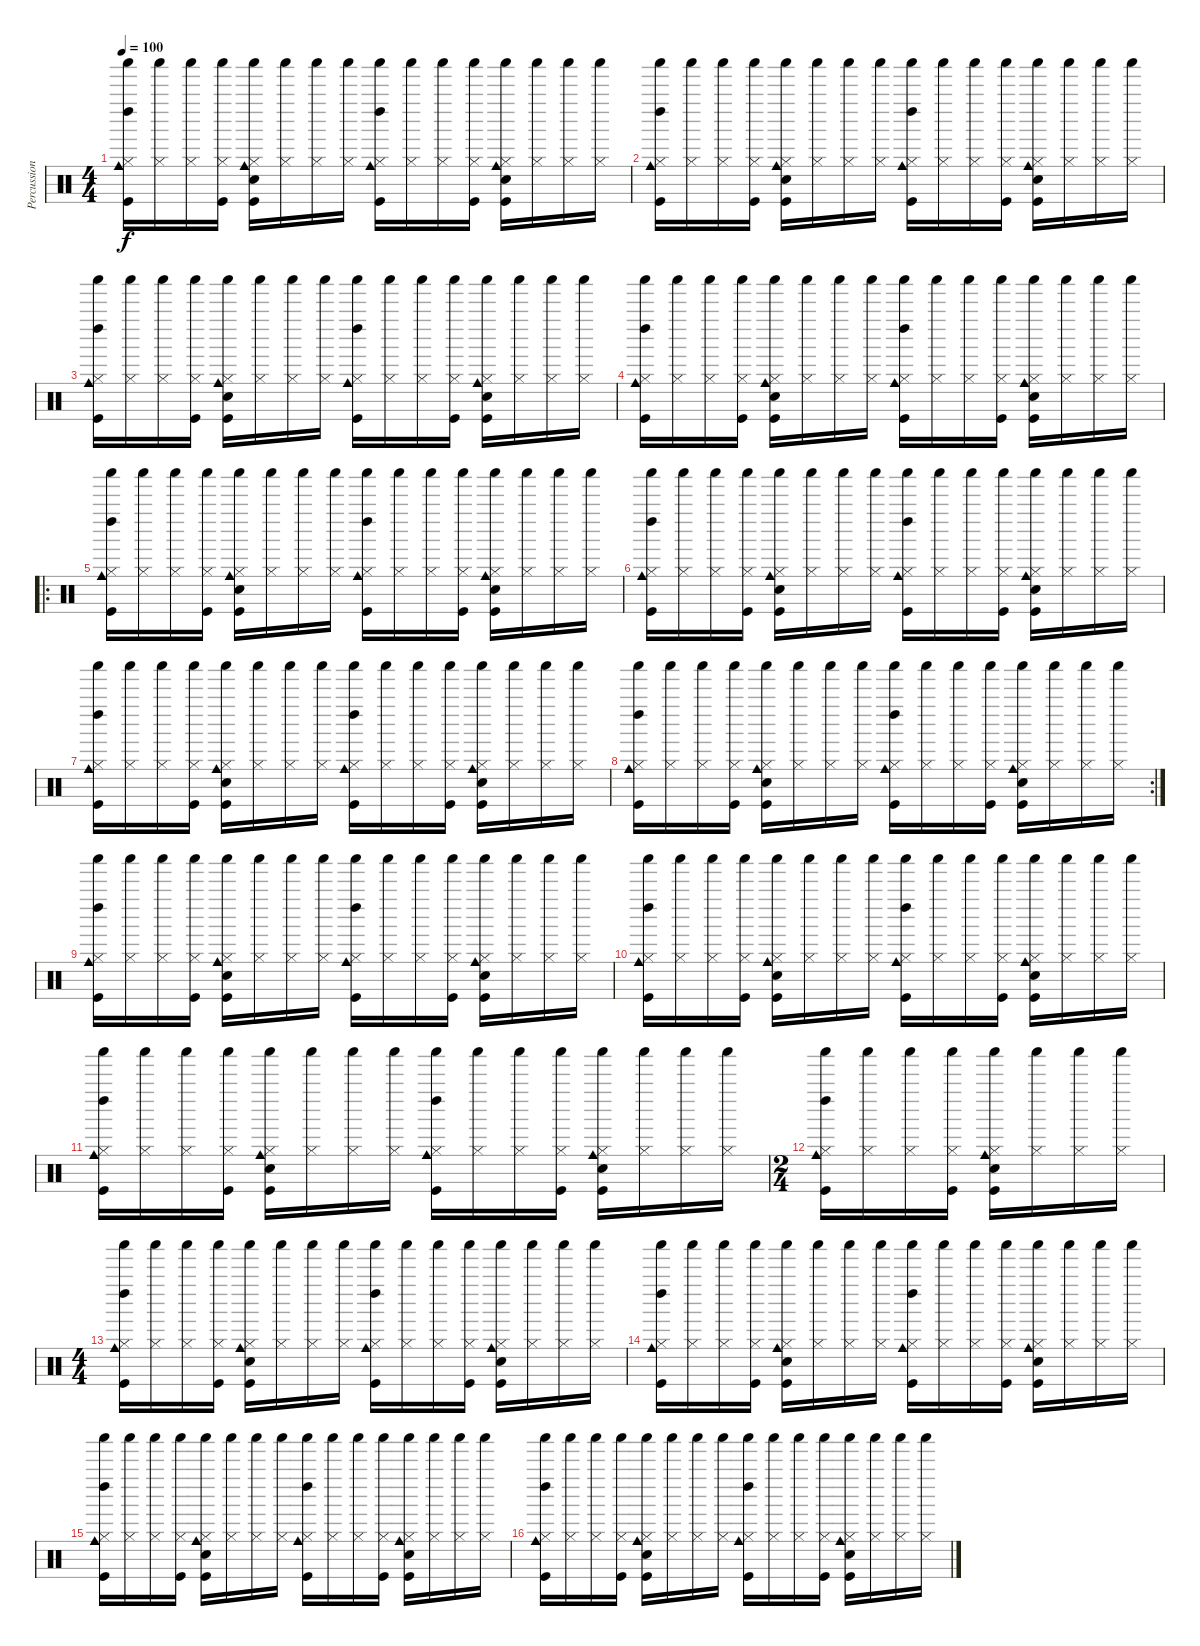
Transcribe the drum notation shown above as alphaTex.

\track ("Percussions" "Percussion") {instrument percussion}
\staff {score}
\articulation defaults
\ts (4 4)
\tempo 100
\clef neutral
\ks c
("Hi-Hat (closed)" "Kick (hit)" "Left Maraca (hit)" "Cowbell medium (hit)" "Shaker (hit)").16{dy f} ("Hi-Hat (closed)" "Shaker (hit)").16 ("Hi-Hat (closed)" "Shaker (hit)").16 ("Hi-Hat (closed)" "Kick (hit)" "Shaker (hit)").16 ("Hi-Hat (closed)" "Electric Snare (hit)" "Kick (hit)" "Cowbell medium (hit)" "Shaker (hit)").16 ("Hi-Hat (closed)" "Shaker (hit)").16 ("Hi-Hat (closed)" "Shaker (hit)").16 ("Hi-Hat (closed)" "Shaker (hit)").16 ("Hi-Hat (closed)" "Kick (hit)" "Left Maraca (hit)" "Cowbell medium (hit)" "Shaker (hit)").16 ("Hi-Hat (closed)" "Shaker (hit)").16 ("Hi-Hat (closed)" "Shaker (hit)").16 ("Hi-Hat (closed)" "Kick (hit)" "Shaker (hit)").16 ("Hi-Hat (closed)" "Electric Snare (hit)" "Kick (hit)" "Cowbell medium (hit)" "Shaker (hit)").16 ("Hi-Hat (closed)" "Shaker (hit)").16 ("Hi-Hat (closed)" "Shaker (hit)").16 ("Hi-Hat (closed)" "Shaker (hit)").16 |
("Hi-Hat (closed)" "Kick (hit)" "Left Maraca (hit)" "Cowbell medium (hit)" "Shaker (hit)").16 ("Hi-Hat (closed)" "Shaker (hit)").16 ("Hi-Hat (closed)" "Shaker (hit)").16 ("Hi-Hat (closed)" "Kick (hit)" "Shaker (hit)").16 ("Hi-Hat (closed)" "Electric Snare (hit)" "Kick (hit)" "Cowbell medium (hit)" "Shaker (hit)").16 ("Hi-Hat (closed)" "Shaker (hit)").16 ("Hi-Hat (closed)" "Shaker (hit)").16 ("Hi-Hat (closed)" "Shaker (hit)").16 ("Hi-Hat (closed)" "Kick (hit)" "Left Maraca (hit)" "Cowbell medium (hit)" "Shaker (hit)").16 ("Hi-Hat (closed)" "Shaker (hit)").16 ("Hi-Hat (closed)" "Shaker (hit)").16 ("Hi-Hat (closed)" "Kick (hit)" "Shaker (hit)").16 ("Hi-Hat (closed)" "Electric Snare (hit)" "Kick (hit)" "Cowbell medium (hit)" "Shaker (hit)").16 ("Hi-Hat (closed)" "Shaker (hit)").16 ("Hi-Hat (closed)" "Shaker (hit)").16 ("Hi-Hat (closed)" "Shaker (hit)").16 |
("Hi-Hat (closed)" "Kick (hit)" "Left Maraca (hit)" "Cowbell medium (hit)" "Shaker (hit)").16 ("Hi-Hat (closed)" "Shaker (hit)").16 ("Hi-Hat (closed)" "Shaker (hit)").16 ("Hi-Hat (closed)" "Kick (hit)" "Shaker (hit)").16 ("Hi-Hat (closed)" "Electric Snare (hit)" "Kick (hit)" "Cowbell medium (hit)" "Shaker (hit)").16 ("Hi-Hat (closed)" "Shaker (hit)").16 ("Hi-Hat (closed)" "Shaker (hit)").16 ("Hi-Hat (closed)" "Shaker (hit)").16 ("Hi-Hat (closed)" "Kick (hit)" "Left Maraca (hit)" "Cowbell medium (hit)" "Shaker (hit)").16 ("Hi-Hat (closed)" "Shaker (hit)").16 ("Hi-Hat (closed)" "Shaker (hit)").16 ("Hi-Hat (closed)" "Kick (hit)" "Shaker (hit)").16 ("Hi-Hat (closed)" "Electric Snare (hit)" "Kick (hit)" "Cowbell medium (hit)" "Shaker (hit)").16 ("Hi-Hat (closed)" "Shaker (hit)").16 ("Hi-Hat (closed)" "Shaker (hit)").16 ("Hi-Hat (closed)" "Shaker (hit)").16 |
("Hi-Hat (closed)" "Kick (hit)" "Left Maraca (hit)" "Cowbell medium (hit)" "Shaker (hit)").16 ("Hi-Hat (closed)" "Shaker (hit)").16 ("Hi-Hat (closed)" "Shaker (hit)").16 ("Hi-Hat (closed)" "Kick (hit)" "Shaker (hit)").16 ("Hi-Hat (closed)" "Electric Snare (hit)" "Kick (hit)" "Cowbell medium (hit)" "Shaker (hit)").16 ("Hi-Hat (closed)" "Shaker (hit)").16 ("Hi-Hat (closed)" "Shaker (hit)").16 ("Hi-Hat (closed)" "Shaker (hit)").16 ("Hi-Hat (closed)" "Kick (hit)" "Left Maraca (hit)" "Cowbell medium (hit)" "Shaker (hit)").16 ("Hi-Hat (closed)" "Shaker (hit)").16 ("Hi-Hat (closed)" "Shaker (hit)").16 ("Hi-Hat (closed)" "Kick (hit)" "Shaker (hit)").16 ("Hi-Hat (closed)" "Electric Snare (hit)" "Kick (hit)" "Cowbell medium (hit)" "Shaker (hit)").16 ("Hi-Hat (closed)" "Shaker (hit)").16 ("Hi-Hat (closed)" "Shaker (hit)").16 ("Hi-Hat (closed)" "Shaker (hit)").16 |
\ro
("Hi-Hat (closed)" "Kick (hit)" "Left Maraca (hit)" "Cowbell medium (hit)" "Shaker (hit)").16 ("Hi-Hat (closed)" "Shaker (hit)").16 ("Hi-Hat (closed)" "Shaker (hit)").16 ("Hi-Hat (closed)" "Kick (hit)" "Shaker (hit)").16 ("Hi-Hat (closed)" "Electric Snare (hit)" "Kick (hit)" "Cowbell medium (hit)" "Shaker (hit)").16 ("Hi-Hat (closed)" "Shaker (hit)").16 ("Hi-Hat (closed)" "Shaker (hit)").16 ("Hi-Hat (closed)" "Shaker (hit)").16 ("Hi-Hat (closed)" "Kick (hit)" "Left Maraca (hit)" "Cowbell medium (hit)" "Shaker (hit)").16 ("Hi-Hat (closed)" "Shaker (hit)").16 ("Hi-Hat (closed)" "Shaker (hit)").16 ("Hi-Hat (closed)" "Kick (hit)" "Shaker (hit)").16 ("Hi-Hat (closed)" "Electric Snare (hit)" "Kick (hit)" "Cowbell medium (hit)" "Shaker (hit)").16 ("Hi-Hat (closed)" "Shaker (hit)").16 ("Hi-Hat (closed)" "Shaker (hit)").16 ("Hi-Hat (closed)" "Shaker (hit)").16 |
("Hi-Hat (closed)" "Kick (hit)" "Left Maraca (hit)" "Cowbell medium (hit)" "Shaker (hit)").16 ("Hi-Hat (closed)" "Shaker (hit)").16 ("Hi-Hat (closed)" "Shaker (hit)").16 ("Hi-Hat (closed)" "Kick (hit)" "Shaker (hit)").16 ("Hi-Hat (closed)" "Electric Snare (hit)" "Kick (hit)" "Cowbell medium (hit)" "Shaker (hit)").16 ("Hi-Hat (closed)" "Shaker (hit)").16 ("Hi-Hat (closed)" "Shaker (hit)").16 ("Hi-Hat (closed)" "Shaker (hit)").16 ("Hi-Hat (closed)" "Kick (hit)" "Left Maraca (hit)" "Cowbell medium (hit)" "Shaker (hit)").16 ("Hi-Hat (closed)" "Shaker (hit)").16 ("Hi-Hat (closed)" "Shaker (hit)").16 ("Hi-Hat (closed)" "Kick (hit)" "Shaker (hit)").16 ("Hi-Hat (closed)" "Electric Snare (hit)" "Kick (hit)" "Cowbell medium (hit)" "Shaker (hit)").16 ("Hi-Hat (closed)" "Shaker (hit)").16 ("Hi-Hat (closed)" "Shaker (hit)").16 ("Hi-Hat (closed)" "Shaker (hit)").16 |
("Hi-Hat (closed)" "Kick (hit)" "Left Maraca (hit)" "Cowbell medium (hit)" "Shaker (hit)").16 ("Hi-Hat (closed)" "Shaker (hit)").16 ("Hi-Hat (closed)" "Shaker (hit)").16 ("Hi-Hat (closed)" "Kick (hit)" "Shaker (hit)").16 ("Hi-Hat (closed)" "Electric Snare (hit)" "Kick (hit)" "Cowbell medium (hit)" "Shaker (hit)").16 ("Hi-Hat (closed)" "Shaker (hit)").16 ("Hi-Hat (closed)" "Shaker (hit)").16 ("Hi-Hat (closed)" "Shaker (hit)").16 ("Hi-Hat (closed)" "Kick (hit)" "Left Maraca (hit)" "Cowbell medium (hit)" "Shaker (hit)").16 ("Hi-Hat (closed)" "Shaker (hit)").16 ("Hi-Hat (closed)" "Shaker (hit)").16 ("Hi-Hat (closed)" "Kick (hit)" "Shaker (hit)").16 ("Hi-Hat (closed)" "Electric Snare (hit)" "Kick (hit)" "Cowbell medium (hit)" "Shaker (hit)").16 ("Hi-Hat (closed)" "Shaker (hit)").16 ("Hi-Hat (closed)" "Shaker (hit)").16 ("Hi-Hat (closed)" "Shaker (hit)").16 |
\rc 2
("Hi-Hat (closed)" "Kick (hit)" "Left Maraca (hit)" "Cowbell medium (hit)" "Shaker (hit)").16 ("Hi-Hat (closed)" "Shaker (hit)").16 ("Hi-Hat (closed)" "Shaker (hit)").16 ("Hi-Hat (closed)" "Kick (hit)" "Shaker (hit)").16 ("Hi-Hat (closed)" "Electric Snare (hit)" "Kick (hit)" "Cowbell medium (hit)" "Shaker (hit)").16 ("Hi-Hat (closed)" "Shaker (hit)").16 ("Hi-Hat (closed)" "Shaker (hit)").16 ("Hi-Hat (closed)" "Shaker (hit)").16 ("Hi-Hat (closed)" "Kick (hit)" "Left Maraca (hit)" "Cowbell medium (hit)" "Shaker (hit)").16 ("Hi-Hat (closed)" "Shaker (hit)").16 ("Hi-Hat (closed)" "Shaker (hit)").16 ("Hi-Hat (closed)" "Kick (hit)" "Shaker (hit)").16 ("Hi-Hat (closed)" "Electric Snare (hit)" "Kick (hit)" "Cowbell medium (hit)" "Shaker (hit)").16 ("Hi-Hat (closed)" "Shaker (hit)").16 ("Hi-Hat (closed)" "Shaker (hit)").16 ("Hi-Hat (closed)" "Shaker (hit)").16 |
("Hi-Hat (closed)" "Kick (hit)" "Left Maraca (hit)" "Cowbell medium (hit)" "Shaker (hit)").16 ("Hi-Hat (closed)" "Shaker (hit)").16 ("Hi-Hat (closed)" "Shaker (hit)").16 ("Hi-Hat (closed)" "Kick (hit)" "Shaker (hit)").16 ("Hi-Hat (closed)" "Electric Snare (hit)" "Kick (hit)" "Cowbell medium (hit)" "Shaker (hit)").16 ("Hi-Hat (closed)" "Shaker (hit)").16 ("Hi-Hat (closed)" "Shaker (hit)").16 ("Hi-Hat (closed)" "Shaker (hit)").16 ("Hi-Hat (closed)" "Kick (hit)" "Left Maraca (hit)" "Cowbell medium (hit)" "Shaker (hit)").16 ("Hi-Hat (closed)" "Shaker (hit)").16 ("Hi-Hat (closed)" "Shaker (hit)").16 ("Hi-Hat (closed)" "Kick (hit)" "Shaker (hit)").16 ("Hi-Hat (closed)" "Electric Snare (hit)" "Kick (hit)" "Cowbell medium (hit)" "Shaker (hit)").16 ("Hi-Hat (closed)" "Shaker (hit)").16 ("Hi-Hat (closed)" "Shaker (hit)").16 ("Hi-Hat (closed)" "Shaker (hit)").16 |
("Hi-Hat (closed)" "Kick (hit)" "Left Maraca (hit)" "Cowbell medium (hit)" "Shaker (hit)").16 ("Hi-Hat (closed)" "Shaker (hit)").16 ("Hi-Hat (closed)" "Shaker (hit)").16 ("Hi-Hat (closed)" "Kick (hit)" "Shaker (hit)").16 ("Hi-Hat (closed)" "Electric Snare (hit)" "Kick (hit)" "Cowbell medium (hit)" "Shaker (hit)").16 ("Hi-Hat (closed)" "Shaker (hit)").16 ("Hi-Hat (closed)" "Shaker (hit)").16 ("Hi-Hat (closed)" "Shaker (hit)").16 ("Hi-Hat (closed)" "Kick (hit)" "Left Maraca (hit)" "Cowbell medium (hit)" "Shaker (hit)").16 ("Hi-Hat (closed)" "Shaker (hit)").16 ("Hi-Hat (closed)" "Shaker (hit)").16 ("Hi-Hat (closed)" "Kick (hit)" "Shaker (hit)").16 ("Hi-Hat (closed)" "Electric Snare (hit)" "Kick (hit)" "Cowbell medium (hit)" "Shaker (hit)").16 ("Hi-Hat (closed)" "Shaker (hit)").16 ("Hi-Hat (closed)" "Shaker (hit)").16 ("Hi-Hat (closed)" "Shaker (hit)").16 |
("Hi-Hat (closed)" "Kick (hit)" "Left Maraca (hit)" "Cowbell medium (hit)" "Shaker (hit)").16 ("Hi-Hat (closed)" "Shaker (hit)").16 ("Hi-Hat (closed)" "Shaker (hit)").16 ("Hi-Hat (closed)" "Kick (hit)" "Shaker (hit)").16 ("Hi-Hat (closed)" "Electric Snare (hit)" "Kick (hit)" "Cowbell medium (hit)" "Shaker (hit)").16 ("Hi-Hat (closed)" "Shaker (hit)").16 ("Hi-Hat (closed)" "Shaker (hit)").16 ("Hi-Hat (closed)" "Shaker (hit)").16 ("Hi-Hat (closed)" "Kick (hit)" "Left Maraca (hit)" "Cowbell medium (hit)" "Shaker (hit)").16 ("Hi-Hat (closed)" "Shaker (hit)").16 ("Hi-Hat (closed)" "Shaker (hit)").16 ("Hi-Hat (closed)" "Kick (hit)" "Shaker (hit)").16 ("Hi-Hat (closed)" "Electric Snare (hit)" "Kick (hit)" "Cowbell medium (hit)" "Shaker (hit)").16 ("Hi-Hat (closed)" "Shaker (hit)").16 ("Hi-Hat (closed)" "Shaker (hit)").16 ("Hi-Hat (closed)" "Shaker (hit)").16 |
\ts (2 4)
("Hi-Hat (closed)" "Kick (hit)" "Left Maraca (hit)" "Cowbell medium (hit)" "Shaker (hit)").16 ("Hi-Hat (closed)" "Shaker (hit)").16 ("Hi-Hat (closed)" "Shaker (hit)").16 ("Hi-Hat (closed)" "Kick (hit)" "Shaker (hit)").16 ("Hi-Hat (closed)" "Electric Snare (hit)" "Kick (hit)" "Cowbell medium (hit)" "Shaker (hit)").16 ("Hi-Hat (closed)" "Shaker (hit)").16 ("Hi-Hat (closed)" "Shaker (hit)").16 ("Hi-Hat (closed)" "Shaker (hit)").16 |
\ts (4 4)
("Hi-Hat (closed)" "Kick (hit)" "Left Maraca (hit)" "Cowbell medium (hit)" "Shaker (hit)").16 ("Hi-Hat (closed)" "Shaker (hit)").16 ("Hi-Hat (closed)" "Shaker (hit)").16 ("Hi-Hat (closed)" "Kick (hit)" "Shaker (hit)").16 ("Hi-Hat (closed)" "Electric Snare (hit)" "Kick (hit)" "Cowbell medium (hit)" "Shaker (hit)").16 ("Hi-Hat (closed)" "Shaker (hit)").16 ("Hi-Hat (closed)" "Shaker (hit)").16 ("Hi-Hat (closed)" "Shaker (hit)").16 ("Hi-Hat (closed)" "Kick (hit)" "Left Maraca (hit)" "Cowbell medium (hit)" "Shaker (hit)").16 ("Hi-Hat (closed)" "Shaker (hit)").16 ("Hi-Hat (closed)" "Shaker (hit)").16 ("Hi-Hat (closed)" "Kick (hit)" "Shaker (hit)").16 ("Hi-Hat (closed)" "Electric Snare (hit)" "Kick (hit)" "Cowbell medium (hit)" "Shaker (hit)").16 ("Hi-Hat (closed)" "Shaker (hit)").16 ("Hi-Hat (closed)" "Shaker (hit)").16 ("Hi-Hat (closed)" "Shaker (hit)").16 |
("Hi-Hat (closed)" "Kick (hit)" "Left Maraca (hit)" "Cowbell medium (hit)" "Shaker (hit)").16 ("Hi-Hat (closed)" "Shaker (hit)").16 ("Hi-Hat (closed)" "Shaker (hit)").16 ("Hi-Hat (closed)" "Kick (hit)" "Shaker (hit)").16 ("Hi-Hat (closed)" "Electric Snare (hit)" "Kick (hit)" "Cowbell medium (hit)" "Shaker (hit)").16 ("Hi-Hat (closed)" "Shaker (hit)").16 ("Hi-Hat (closed)" "Shaker (hit)").16 ("Hi-Hat (closed)" "Shaker (hit)").16 ("Hi-Hat (closed)" "Kick (hit)" "Left Maraca (hit)" "Cowbell medium (hit)" "Shaker (hit)").16 ("Hi-Hat (closed)" "Shaker (hit)").16 ("Hi-Hat (closed)" "Shaker (hit)").16 ("Hi-Hat (closed)" "Kick (hit)" "Shaker (hit)").16 ("Hi-Hat (closed)" "Electric Snare (hit)" "Kick (hit)" "Cowbell medium (hit)" "Shaker (hit)").16 ("Hi-Hat (closed)" "Shaker (hit)").16 ("Hi-Hat (closed)" "Shaker (hit)").16 ("Hi-Hat (closed)" "Shaker (hit)").16 |
("Hi-Hat (closed)" "Kick (hit)" "Left Maraca (hit)" "Cowbell medium (hit)" "Shaker (hit)").16 ("Hi-Hat (closed)" "Shaker (hit)").16 ("Hi-Hat (closed)" "Shaker (hit)").16 ("Hi-Hat (closed)" "Kick (hit)" "Shaker (hit)").16 ("Hi-Hat (closed)" "Electric Snare (hit)" "Kick (hit)" "Cowbell medium (hit)" "Shaker (hit)").16 ("Hi-Hat (closed)" "Shaker (hit)").16 ("Hi-Hat (closed)" "Shaker (hit)").16 ("Hi-Hat (closed)" "Shaker (hit)").16 ("Hi-Hat (closed)" "Kick (hit)" "Left Maraca (hit)" "Cowbell medium (hit)" "Shaker (hit)").16 ("Hi-Hat (closed)" "Shaker (hit)").16 ("Hi-Hat (closed)" "Shaker (hit)").16 ("Hi-Hat (closed)" "Kick (hit)" "Shaker (hit)").16 ("Hi-Hat (closed)" "Electric Snare (hit)" "Kick (hit)" "Cowbell medium (hit)" "Shaker (hit)").16 ("Hi-Hat (closed)" "Shaker (hit)").16 ("Hi-Hat (closed)" "Shaker (hit)").16 ("Hi-Hat (closed)" "Shaker (hit)").16 |
("Hi-Hat (closed)" "Kick (hit)" "Left Maraca (hit)" "Cowbell medium (hit)" "Shaker (hit)").16 ("Hi-Hat (closed)" "Shaker (hit)").16 ("Hi-Hat (closed)" "Shaker (hit)").16 ("Hi-Hat (closed)" "Kick (hit)" "Shaker (hit)").16 ("Hi-Hat (closed)" "Electric Snare (hit)" "Kick (hit)" "Cowbell medium (hit)" "Shaker (hit)").16 ("Hi-Hat (closed)" "Shaker (hit)").16 ("Hi-Hat (closed)" "Shaker (hit)").16 ("Hi-Hat (closed)" "Shaker (hit)").16 ("Hi-Hat (closed)" "Kick (hit)" "Left Maraca (hit)" "Cowbell medium (hit)" "Shaker (hit)").16 ("Hi-Hat (closed)" "Shaker (hit)").16 ("Hi-Hat (closed)" "Shaker (hit)").16 ("Hi-Hat (closed)" "Kick (hit)" "Shaker (hit)").16 ("Hi-Hat (closed)" "Electric Snare (hit)" "Kick (hit)" "Cowbell medium (hit)" "Shaker (hit)").16 ("Hi-Hat (closed)" "Shaker (hit)").16 ("Hi-Hat (closed)" "Shaker (hit)").16 ("Hi-Hat (closed)" "Shaker (hit)").16
